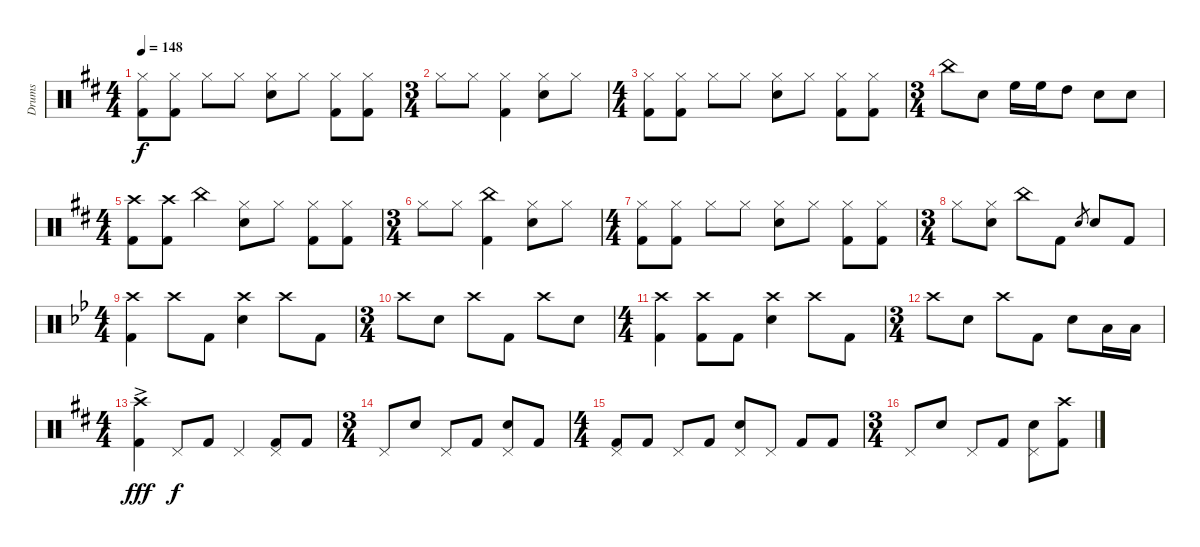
\track ("Drums" "Drums") {instrument percussion}
\staff {score}
\articulation defaults
\ts (4 4)
\tempo 148
\clef neutral
\ks d
("Kick (hit) 2" "Hi-Hat (closed)").8{dy f} ("Kick (hit) 2" "Hi-Hat (closed)").8 "Hi-Hat (closed)".8 "Hi-Hat (closed)".8 ("Electric Snare (hit)" "Hi-Hat (closed)").8 "Hi-Hat (closed)".8 ("Kick (hit) 2" "Hi-Hat (closed)").8 ("Kick (hit) 2" "Hi-Hat (closed)").8 |
\ts (3 4)
"Hi-Hat (closed)".8 "Hi-Hat (closed)".8 ("Kick (hit) 2" "Hi-Hat (closed)").4 ("Electric Snare (hit)" "Hi-Hat (closed)").8 "Hi-Hat (closed)".8 |
\ts (4 4)
("Kick (hit) 2" "Hi-Hat (closed)").8 ("Kick (hit) 2" "Hi-Hat (closed)").8 "Hi-Hat (closed)".8 "Hi-Hat (closed)".8 ("Electric Snare (hit)" "Hi-Hat (closed)").8 "Hi-Hat (closed)".8 ("Kick (hit) 2" "Hi-Hat (closed)").8 ("Kick (hit) 2" "Hi-Hat (closed)").8 |
\ts (3 4)
"China (hit)".8 "Electric Snare (hit)".8 "High Floor Tom (hit)".16 "High Floor Tom (hit)".16 "High Tom (hit)".8 "Electric Snare (hit)".8 "Electric Snare (hit)".8 |
\ts (4 4)
("Kick (hit) 2" "Crash high (hit)").8 ("Kick (hit) 2" "Crash high (hit)").8 "China (hit)".4 ("Electric Snare (hit)" "Hi-Hat (closed)").8 "Hi-Hat (closed)".8 ("Kick (hit) 2" "Hi-Hat (closed)").8 ("Kick (hit) 2" "Hi-Hat (closed)").8 |
\ts (3 4)
"Hi-Hat (closed)".8 "Hi-Hat (closed)".8 ("Kick (hit) 2" "China (hit)").4 ("Electric Snare (hit)" "Hi-Hat (closed)").8 "Hi-Hat (closed)".8 |
\ts (4 4)
("Kick (hit) 2" "Hi-Hat (closed)").8 ("Kick (hit) 2" "Hi-Hat (closed)").8 "Hi-Hat (closed)".8 "Hi-Hat (closed)".8 ("Electric Snare (hit)" "Hi-Hat (closed)").8 "Hi-Hat (closed)".8 ("Kick (hit) 2" "Hi-Hat (closed)").8 ("Kick (hit) 2" "Hi-Hat (closed)").8 |
\ts (3 4)
"Hi-Hat (closed)".8 ("Electric Snare (hit)" "Hi-Hat (closed)").8 "China (hit)".8 "Kick (hit) 2".8 "Snare (hit) 2".8{gr} "Electric Snare (hit)".8 "Kick (hit) 2".8 |
\ts (4 4)
\ks bb
("Kick (hit) 2" "Crash high (hit)").4 "Crash high (hit)".8 "Kick (hit) 2".8 ("Electric Snare (hit)" "Crash high (hit)").4 "Crash high (hit)".8 "Kick (hit) 2".8 |
\ts (3 4)
"Crash high (hit)".8 "Electric Snare (hit)".8 "Crash high (hit)".8 "Kick (hit) 2".8 "Crash high (hit)".8 "Electric Snare (hit)".8 |
\ts (4 4)
("Kick (hit) 2" "Crash high (hit)").4 ("Kick (hit) 2" "Crash high (hit)").8 "Kick (hit) 2".8 ("Electric Snare (hit)" "Crash high (hit)").4 "Crash high (hit)".8 "Kick (hit) 2".8 |
\ts (3 4)
"Crash high (hit)".8 "Electric Snare (hit)".8 "Crash high (hit)".8 "Kick (hit) 2".8 "Electric Snare (hit)".8 "Low Floor Tom (hit)".16 "Low Floor Tom (hit)".16 |
\ts (4 4)
\ks d
("Kick (hit) 2" "Crash high (hit)"{ac}).4{dy fff} "Pedal Hi-Hat (hit)".8{dy f} "Kick (hit) 2".8 "Pedal Hi-Hat (hit)".4 ("Kick (hit) 2" "Pedal Hi-Hat (hit)").8 "Kick (hit) 2".8 |
\ts (3 4)
"Pedal Hi-Hat (hit)".8 "Electric Snare (hit)".8 "Pedal Hi-Hat (hit)".8 "Kick (hit) 2".8 ("Electric Snare (hit)" "Pedal Hi-Hat (hit)").8 "Kick (hit) 2".8 |
\ts (4 4)
("Kick (hit) 2" "Pedal Hi-Hat (hit)").8 "Kick (hit) 2".8 "Pedal Hi-Hat (hit)".8 "Kick (hit) 2".8 ("Electric Snare (hit)" "Pedal Hi-Hat (hit)").8 "Pedal Hi-Hat (hit)".8 "Kick (hit) 2".8 "Kick (hit) 2".8 |
\ts (3 4)
"Pedal Hi-Hat (hit)".8 "Electric Snare (hit)".8 "Pedal Hi-Hat (hit)".8 "Kick (hit) 2".8 ("Electric Snare (hit)" "Pedal Hi-Hat (hit)").8 ("Kick (hit) 2" "Crash high (hit)").8
